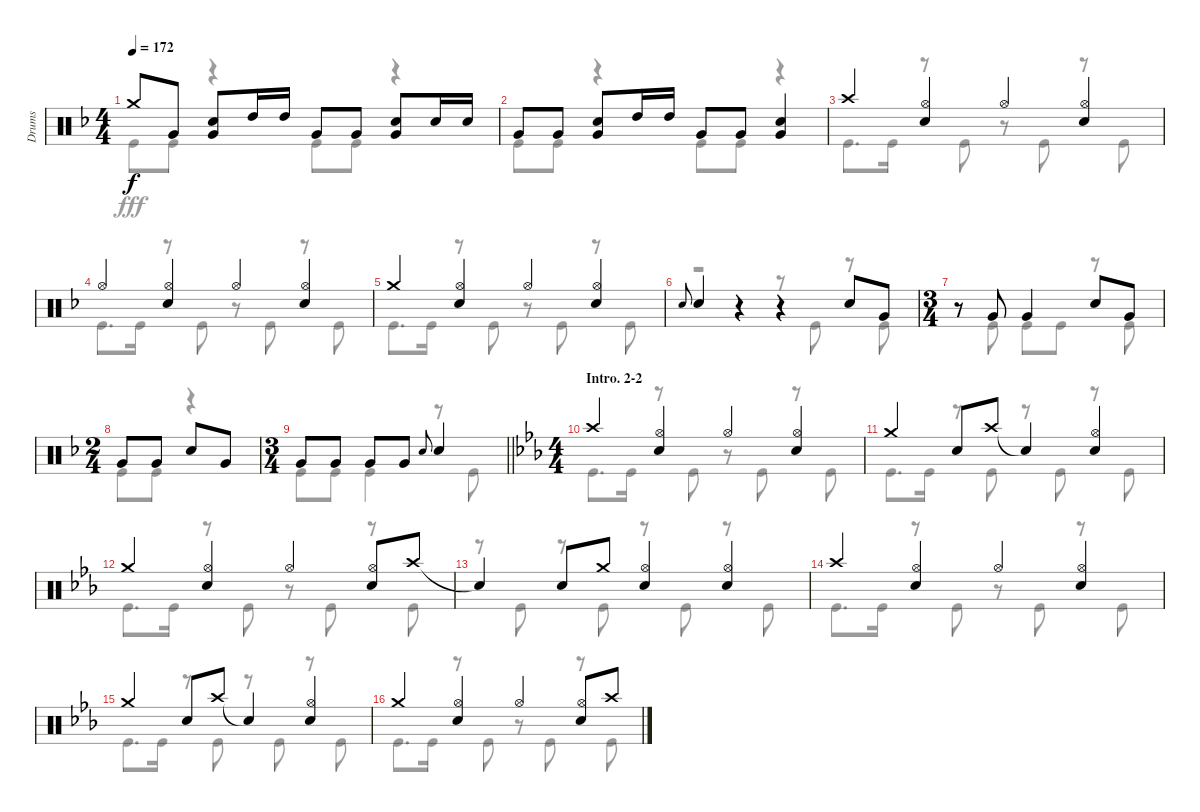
\track ("Drums" "Drums") {instrument percussion}
\staff {score}
\articulation defaults
\voice
\ts (4 4)
\tempo 172
\clef neutral
\ks f "Crash medium (hit)".8{dy f} "Very Low Tom (hit)".8
("Snare (hit) 2" "Very Low Tom (hit)").8 "High Tom (hit)".16 "High Tom (hit)".16 "Very Low Tom (hit)".8 "Very Low Tom (hit)".8 ("Snare (hit) 2" "Very Low Tom (hit)").8 "Snare (hit) 2".16 "Snare (hit) 2".16 |
"Very Low Tom (hit)".8 "Very Low Tom (hit)".8 ("Snare (hit) 2" "Very Low Tom (hit)").8 "High Tom (hit)".16 "High Tom (hit)".16 "Very Low Tom (hit)".8 "Very Low Tom (hit)".8 ("Snare (hit) 2" "Very Low Tom (hit)").4 |
"Crash high (hit)".4 ("Hi-Hat (open)" "Snare (hit) 2").4 "Hi-Hat (open)".4 ("Hi-Hat (open)" "Snare (hit) 2").4 |
"Hi-Hat (open)".4 ("Hi-Hat (open)" "Snare (hit) 2").4 "Hi-Hat (open)".4 ("Hi-Hat (open)" "Snare (hit) 2").4 |
"Crash medium (hit)".4 ("Hi-Hat (open)" "Snare (hit) 2").4 "Hi-Hat (open)".4 ("Hi-Hat (open)" "Snare (hit) 2").4 |
"Snare (hit) 2".8{gr onbeat} "Snare (hit) 2".4 r.4 r.4 "Snare (hit) 2".8 "Very Low Tom (hit)".8 |
\ts (3 4)
r.8 "Very Low Tom (hit)".8 "Very Low Tom (hit)".4 "Snare (hit) 2".8 "Very Low Tom (hit)".8 |
\ts (2 4)
"Very Low Tom (hit)".8 "Very Low Tom (hit)".8 "Snare (hit) 2".8 "Very Low Tom (hit)".8 |
\ts (3 4)
\barLineRight lightlight "Very Low Tom (hit)".8 "Very Low Tom (hit)".8 "Very Low Tom (hit)".8 "Very Low Tom (hit)".8 "Snare (hit) 2".8{gr onbeat} "Snare (hit) 2".4
|
\ts (4 4)
\section ("" "Intro. 2-2")
\ks eb "Crash high (hit)".4
("Hi-Hat (open)" "Snare (hit) 2").4 "Hi-Hat (open)".4 ("Hi-Hat (open)" "Snare (hit) 2").4 |
"Crash medium (hit)".4 "Snare (hit) 2".8 "Crash high (hit)".8 "Snare (hit)"{t}.4 ("Hi-Hat (open)" "Snare (hit) 2").4 |
"Crash medium (hit)".4 ("Hi-Hat (open)" "Snare (hit) 2").4 "Hi-Hat (open)".4 ("Hi-Hat (open)" "Snare (hit) 2").8 "Crash high (hit)".8 |
"Snare (hit)"{t}.4 "Snare (hit) 2".8 "Crash medium (hit)".8 ("Hi-Hat (open)" "Snare (hit) 2").4 ("Hi-Hat (open)" "Snare (hit) 2").4 |
"Crash high (hit)".4 ("Hi-Hat (open)" "Snare (hit) 2").4 "Hi-Hat (open)".4 ("Hi-Hat (open)" "Snare (hit) 2").4 |
"Crash medium (hit)".4 "Snare (hit) 2".8 "Crash high (hit)".8 "Snare (hit)"{t}.4 ("Hi-Hat (open)" "Snare (hit) 2").4 |
"Crash medium (hit)".4 ("Hi-Hat (open)" "Snare (hit) 2").4 "Hi-Hat (open)".4 ("Hi-Hat (open)" "Snare (hit) 2").8 "Crash high (hit)".8
\voice
\clef neutral
\ottava regular
\simile none
\ks f "Kick (hit)".8{dy fff} "Kick (hit)".8
r.4 "Kick (hit)".8 "Kick (hit)".8 r.4 |
"Kick (hit)".8 "Kick (hit)".8 r.4 "Kick (hit)".8 "Kick (hit)".8 r.4 |
"Kick (hit)".8{d} "Kick (hit)".16 r.8 "Kick (hit)".8 r.8 "Kick (hit)".8 r.8 "Kick (hit)".8 |
"Kick (hit)".8{d} "Kick (hit)".16 r.8 "Kick (hit)".8 r.8 "Kick (hit)".8 r.8 "Kick (hit)".8 |
"Kick (hit)".8{d} "Kick (hit)".16 r.8 "Kick (hit)".8 r.8 "Kick (hit)".8 r.8 "Kick (hit)".8 |
r.2 r.8 "Kick (hit)".8 r.8 "Kick (hit)".8 |
r.8 "Kick (hit)".8 "Kick (hit)".8 "Kick (hit)".8 r.8 "Kick (hit)".8 |
"Kick (hit)".8 "Kick (hit)".8 r.4 |
\barLineRight lightlight "Kick (hit)".8 "Kick (hit)".8 "Kick (hit)".4
r.8 "Kick (hit)".8 |
\ks eb "Kick (hit)".8{d} "Kick (hit)".16
r.8 "Kick (hit)".8 r.8 "Kick (hit)".8 r.8 "Kick (hit)".8 |
"Kick (hit)".8{d} "Kick (hit)".16 r.8 "Kick (hit)".8 r.8 "Kick (hit)".8 r.8 "Kick (hit)".8 |
"Kick (hit)".8{d} "Kick (hit)".16 r.8 "Kick (hit)".8 r.8 "Kick (hit)".8 r.8 "Kick (hit)".8 |
r.8 "Kick (hit)".8 r.8 "Kick (hit)".8 r.8 "Kick (hit)".8 r.8 "Kick (hit)".8 |
"Kick (hit)".8{d} "Kick (hit)".16 r.8 "Kick (hit)".8 r.8 "Kick (hit)".8 r.8 "Kick (hit)".8 |
"Kick (hit)".8{d} "Kick (hit)".16 r.8 "Kick (hit)".8 r.8 "Kick (hit)".8 r.8 "Kick (hit)".8 |
"Kick (hit)".8{d} "Kick (hit)".16 r.8 "Kick (hit)".8 r.8 "Kick (hit)".8 r.8 "Kick (hit)".8
